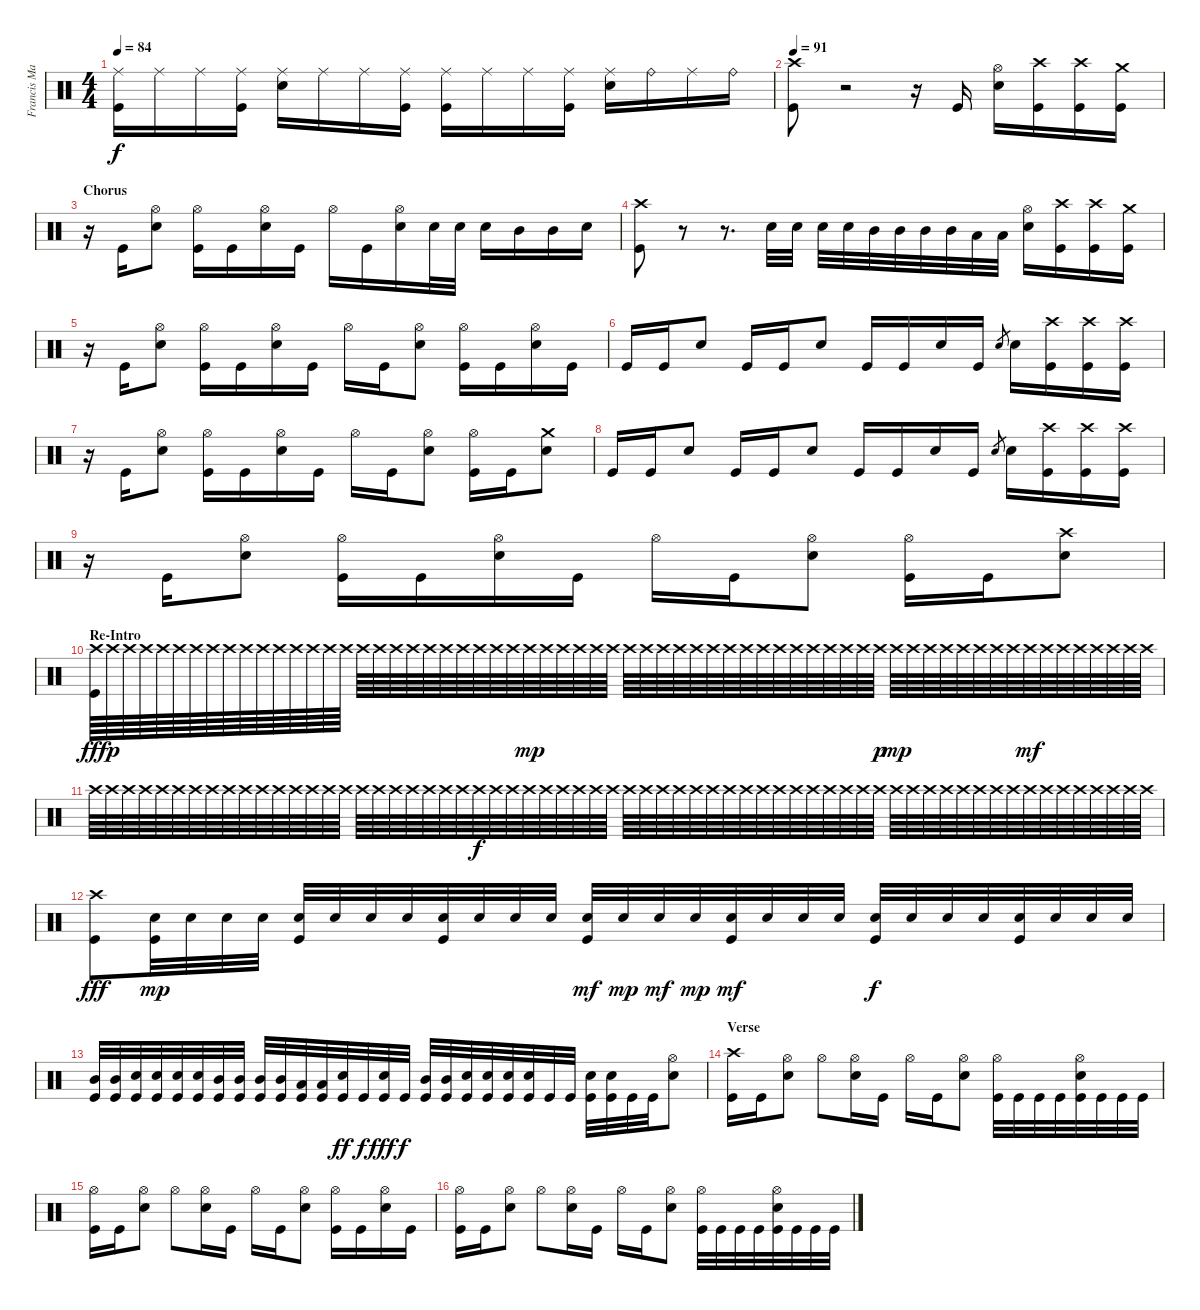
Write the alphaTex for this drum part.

\track ("Francis Mark" "Francis Ma") {instrument percussion}
\staff {score}
\articulation defaults
\ts (4 4)
\tempo 84
\clef neutral
\ks c
("Ride (middle)" "Kick (hit)").16{dy f} "Ride (middle)".16 "Ride (middle)".16 ("Ride (middle)" "Kick (hit)").16 ("Ride (middle)" "Electric Snare (hit)").16 "Ride (middle)".16 "Ride (middle)".16 ("Ride (middle)" "Kick (hit)").16 ("Ride (middle)" "Kick (hit)").16 "Ride (middle)".16 "Ride (middle)".16 ("Ride (middle)" "Kick (hit)").16 ("Ride (middle)" "Electric Snare (hit)").16 "Ride (bell)".16 "Ride (middle)".16 "Ride (bell)".16 |
\tempo 91
("Crash high (hit)" "Kick (hit)").8 r.2{volume 0} r.16 "Kick (hit)".16{volume 13} ("Hi-Hat (open)" "Electric Snare (hit)").16 ("Crash high (hit)" "Kick (hit)").16 ("Crash high (hit)" "Kick (hit)").16 ("Crash medium (hit)" "Kick (hit)").16 |
\section ("" "Chorus")
r.16 "Kick (hit)".16 ("Hi-Hat (open)" "Electric Snare (hit)").8 ("Hi-Hat (open)" "Kick (hit)").16 "Kick (hit)".16 ("Hi-Hat (open)" "Electric Snare (hit)").16 "Kick (hit)".16 "Hi-Hat (open)".16 "Kick (hit)".16 ("Hi-Hat (open)" "Electric Snare (hit)").16 "Electric Snare (hit)".32 "Electric Snare (hit)".32 "Electric Snare (hit)".16 "Mid Tom (hit)".16 "Mid Tom (hit)".16 "Electric Snare (hit)".16 |
("Crash high (hit)" "Kick (hit)").8 r.8{volume 0} r.8{d} "Electric Snare (hit)".32{volume 13} "Electric Snare (hit)".32 "Electric Snare (hit)".32 "Electric Snare (hit)".32 "Mid Tom (hit)".32 "Mid Tom (hit)".32 "Mid Tom (hit)".32 "Mid Tom (hit)".32 "Low Tom (hit)".32 "Low Tom (hit)".32 ("Hi-Hat (open)" "Electric Snare (hit)").16 ("Crash high (hit)" "Kick (hit)").16 ("Crash high (hit)" "Kick (hit)").16 ("Crash medium (hit)" "Kick (hit)").16 |
r.16 "Kick (hit)".16 ("Hi-Hat (open)" "Electric Snare (hit)").8 ("Hi-Hat (open)" "Kick (hit)").16 "Kick (hit)".16 ("Hi-Hat (open)" "Electric Snare (hit)").16 "Kick (hit)".16 "Hi-Hat (open)".16 "Kick (hit)".16 ("Hi-Hat (open)" "Electric Snare (hit)").8 ("Hi-Hat (open)" "Kick (hit)").16 "Kick (hit)".16 ("Hi-Hat (open)" "Electric Snare (hit)").16 "Kick (hit)".16 |
"Kick (hit)".16 "Kick (hit)".16 "Electric Snare (hit)".8 "Kick (hit)".16 "Kick (hit)".16 "Electric Snare (hit)".8 "Kick (hit)".16 "Kick (hit)".16 "Electric Snare (hit)".16 "Kick (hit)".16 "Electric Snare (hit)".8{gr} "Electric Snare (hit)".16 ("Crash high (hit)" "Kick (hit)").16 ("Crash high (hit)" "Kick (hit)").16 ("Crash high (hit)" "Kick (hit)").16 |
r.16 "Kick (hit)".16 ("Hi-Hat (open)" "Electric Snare (hit)").8 ("Hi-Hat (open)" "Kick (hit)").16 "Kick (hit)".16 ("Hi-Hat (open)" "Electric Snare (hit)").16 "Kick (hit)".16 "Hi-Hat (open)".16 "Kick (hit)".16 ("Hi-Hat (open)" "Electric Snare (hit)").8 ("Hi-Hat (open)" "Kick (hit)").16 "Kick (hit)".16 ("Crash medium (hit)" "Electric Snare (hit)").8 |
"Kick (hit)".16 "Kick (hit)".16 "Electric Snare (hit)".8 "Kick (hit)".16 "Kick (hit)".16 "Electric Snare (hit)".8 "Kick (hit)".16 "Kick (hit)".16 "Electric Snare (hit)".16 "Kick (hit)".16 "Electric Snare (hit)".8{gr} "Electric Snare (hit)".16 ("Crash high (hit)" "Kick (hit)").16 ("Crash high (hit)" "Kick (hit)").16 ("Crash high (hit)" "Kick (hit)").16 |
r.16 "Kick (hit)".16 ("Hi-Hat (open)" "Electric Snare (hit)").8 ("Hi-Hat (open)" "Kick (hit)").16 "Kick (hit)".16 ("Hi-Hat (open)" "Electric Snare (hit)").16 "Kick (hit)".16 "Hi-Hat (open)".16 "Kick (hit)".16 ("Hi-Hat (open)" "Electric Snare (hit)").8 ("Hi-Hat (open)" "Kick (hit)").16 "Kick (hit)".16 ("Crash high (hit)" "Electric Snare (hit)").8 |
\section ("" "Re-Intro")
("Crash high (hit)" "Kick (hit)").64{dy fff} "Crash high (hit)".64{dy p} "Crash high (hit)".64 "Crash high (hit)".64 "Crash high (hit)".64 "Crash high (hit)".64 "Crash high (hit)".64 "Crash high (hit)".64 "Crash high (hit)".64 "Crash high (hit)".64 "Crash high (hit)".64 "Crash high (hit)".64 "Crash high (hit)".64 "Crash high (hit)".64 "Crash high (hit)".64 "Crash high (hit)".64 "Crash high (hit)".64 "Crash high (hit)".64 "Crash high (hit)".64 "Crash high (hit)".64 "Crash high (hit)".64 "Crash high (hit)".64 "Crash high (hit)".64 "Crash high (hit)".64 "Crash high (hit)".64 "Crash high (hit)".64 "Crash high (hit)".64{dy mp} "Crash high (hit)".64 "Crash high (hit)".64 "Crash high (hit)".64 "Crash high (hit)".64 "Crash high (hit)".64 "Crash high (hit)".64 "Crash high (hit)".64 "Crash high (hit)".64 "Crash high (hit)".64 "Crash high (hit)".64 "Crash high (hit)".64 "Crash high (hit)".64 "Crash high (hit)".64 "Crash high (hit)".64 "Crash high (hit)".64 "Crash high (hit)".64 "Crash high (hit)".64 "Crash high (hit)".64 "Crash high (hit)".64 "Crash high (hit)".64 "Crash high (hit)".64{dy p} "Crash high (hit)".64{dy mp} "Crash high (hit)".64 "Crash high (hit)".64 "Crash high (hit)".64 "Crash high (hit)".64 "Crash high (hit)".64 "Crash high (hit)".64 "Crash high (hit)".64 "Crash high (hit)".64{dy mf} "Crash high (hit)".64 "Crash high (hit)".64 "Crash high (hit)".64 "Crash high (hit)".64 "Crash high (hit)".64 "Crash high (hit)".64 "Crash high (hit)".64 |
"Crash high (hit)".64 "Crash high (hit)".64 "Crash high (hit)".64 "Crash high (hit)".64 "Crash high (hit)".64 "Crash high (hit)".64 "Crash high (hit)".64 "Crash high (hit)".64 "Crash high (hit)".64 "Crash high (hit)".64 "Crash high (hit)".64 "Crash high (hit)".64 "Crash high (hit)".64 "Crash high (hit)".64 "Crash high (hit)".64 "Crash high (hit)".64 "Crash high (hit)".64 "Crash high (hit)".64 "Crash high (hit)".64 "Crash high (hit)".64 "Crash high (hit)".64 "Crash high (hit)".64 "Crash high (hit)".64 "Crash high (hit)".64{dy f} "Crash high (hit)".64 "Crash high (hit)".64 "Crash high (hit)".64 "Crash high (hit)".64 "Crash high (hit)".64 "Crash high (hit)".64 "Crash high (hit)".64 "Crash high (hit)".64 "Crash high (hit)".64 "Crash high (hit)".64 "Crash high (hit)".64 "Crash high (hit)".64 "Crash high (hit)".64 "Crash high (hit)".64 "Crash high (hit)".64 "Crash high (hit)".64 "Crash high (hit)".64 "Crash high (hit)".64 "Crash high (hit)".64 "Crash high (hit)".64 "Crash high (hit)".64 "Crash high (hit)".64 "Crash high (hit)".64 "Crash high (hit)".64 "Crash high (hit)".64 "Crash high (hit)".64 "Crash high (hit)".64 "Crash high (hit)".64 "Crash high (hit)".64 "Crash high (hit)".64 "Crash high (hit)".64 "Crash high (hit)".64 "Crash high (hit)".64 "Crash high (hit)".64 "Crash high (hit)".64 "Crash high (hit)".64 "Crash high (hit)".64 "Crash high (hit)".64 "Crash high (hit)".64 "Crash high (hit)".64 |
("Crash high (hit)" "Kick (hit)").8{dy fff} ("Electric Snare (hit)" "Kick (hit)").32{dy mp volume 13} "Electric Snare (hit)".32 "Electric Snare (hit)".32 "Electric Snare (hit)".32 ("Electric Snare (hit)" "Kick (hit)").32 "Electric Snare (hit)".32 "Electric Snare (hit)".32 "Electric Snare (hit)".32 ("Electric Snare (hit)" "Kick (hit)").32 "Electric Snare (hit)".32 "Electric Snare (hit)".32 "Electric Snare (hit)".32 ("Electric Snare (hit)" "Kick (hit)").32{dy mf} "Electric Snare (hit)".32{dy mp} "Electric Snare (hit)".32{dy mf} "Electric Snare (hit)".32{dy mp} ("Electric Snare (hit)" "Kick (hit)").32{dy mf} "Electric Snare (hit)".32 "Electric Snare (hit)".32 "Electric Snare (hit)".32 ("Electric Snare (hit)" "Kick (hit)").32{dy f} "Electric Snare (hit)".32 "Electric Snare (hit)".32 "Electric Snare (hit)".32 ("Electric Snare (hit)" "Kick (hit)").32 "Electric Snare (hit)".32 "Electric Snare (hit)".32 "Electric Snare (hit)".32 |
("Mid Tom (hit)" "Kick (hit)").32 ("Mid Tom (hit)" "Kick (hit)").32 ("Electric Snare (hit)" "Kick (hit)").32 ("Electric Snare (hit)" "Kick (hit)").32 ("Electric Snare (hit)" "Kick (hit)").32 ("Electric Snare (hit)" "Kick (hit)").32 ("Mid Tom (hit)" "Kick (hit)").32 ("Mid Tom (hit)" "Kick (hit)").32 ("Mid Tom (hit)" "Kick (hit)").32 ("Mid Tom (hit)" "Kick (hit)").32 ("Low Tom (hit)" "Kick (hit)").32 ("Low Tom (hit)" "Kick (hit)").32 ("Electric Snare (hit)" "Kick (hit)").32{dy ff} "Kick (hit)".32{dy f} ("Electric Snare (hit)" "Kick (hit)").32{dy fff} "Kick (hit)".32{dy f} ("Mid Tom (hit)" "Kick (hit)").32 ("Mid Tom (hit)" "Kick (hit)").32 ("Electric Snare (hit)" "Kick (hit)").32 ("Electric Snare (hit)" "Kick (hit)").32 ("Electric Snare (hit)" "Kick (hit)").32 ("Electric Snare (hit)" "Kick (hit)").32 "Kick (hit)".32 "Kick (hit)".32 ("Electric Snare (hit)" "Kick (hit)").32 ("Electric Snare (hit)" "Kick (hit)").32 "Kick (hit)".32 "Kick (hit)".32 ("Hi-Hat (open)" "Electric Snare (hit)").8 |
\section ("" "Verse")
("Crash high (hit)" "Kick (hit)").16 "Kick (hit)".16 ("Hi-Hat (open)" "Electric Snare (hit)").8 "Hi-Hat (open)".8 ("Hi-Hat (open)" "Electric Snare (hit)").16 "Kick (hit)".16 "Hi-Hat (open)".16 "Kick (hit)".16 ("Hi-Hat (open)" "Electric Snare (hit)").8 ("Hi-Hat (open)" "Kick (hit)").32 "Kick (hit)".32 "Kick (hit)".32 "Kick (hit)".32 ("Hi-Hat (open)" "Electric Snare (hit)" "Kick (hit)").32 "Kick (hit)".32 "Kick (hit)".32 "Kick (hit)".32 |
("Hi-Hat (open)" "Kick (hit)").16 "Kick (hit)".16 ("Hi-Hat (open)" "Electric Snare (hit)").8 "Hi-Hat (open)".8 ("Hi-Hat (open)" "Electric Snare (hit)").16 "Kick (hit)".16 "Hi-Hat (open)".16 "Kick (hit)".16 ("Hi-Hat (open)" "Electric Snare (hit)").8 ("Hi-Hat (open)" "Kick (hit)").16 "Kick (hit)".16 ("Hi-Hat (open)" "Electric Snare (hit)").16 "Kick (hit)".16 |
("Hi-Hat (open)" "Kick (hit)").16 "Kick (hit)".16 ("Hi-Hat (open)" "Electric Snare (hit)").8 "Hi-Hat (open)".8 ("Hi-Hat (open)" "Electric Snare (hit)").16 "Kick (hit)".16 "Hi-Hat (open)".16 "Kick (hit)".16 ("Hi-Hat (open)" "Electric Snare (hit)").8 ("Hi-Hat (open)" "Kick (hit)").32 "Kick (hit)".32 "Kick (hit)".32 "Kick (hit)".32 ("Hi-Hat (open)" "Electric Snare (hit)" "Kick (hit)").32 "Kick (hit)".32 "Kick (hit)".32 "Kick (hit)".32
